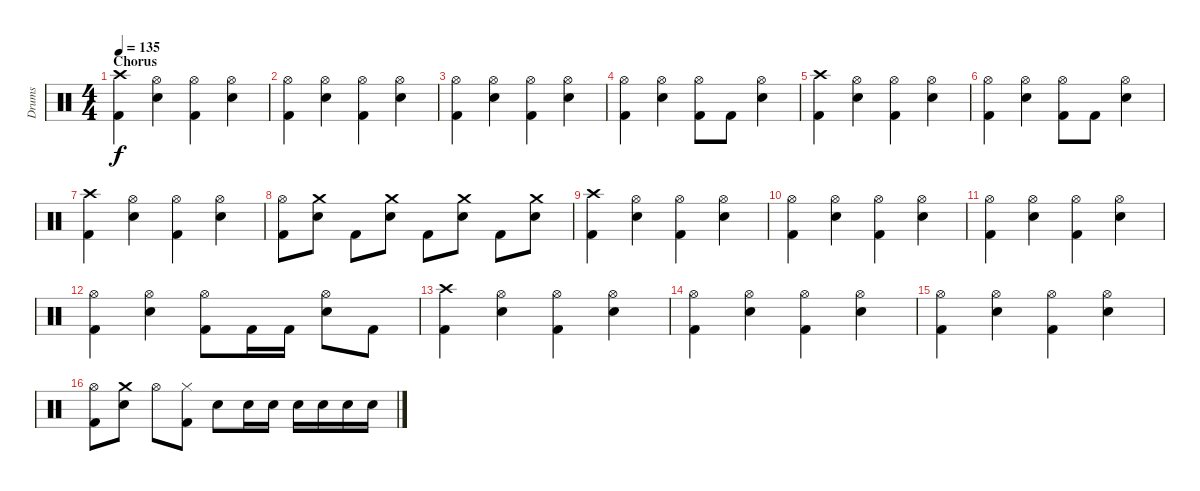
\track ("Drums" "Drums") {instrument percussion}
\staff {score}
\articulation defaults
\ts (4 4)
\section ("" "Chorus")
\tempo 135
\clef neutral
\ks c
("Crash high (hit)" "Kick (hit) 2").4{dy f} ("Hi-Hat (open)" "Snare (hit) 2").4 ("Hi-Hat (open)" "Kick (hit) 2").4 ("Hi-Hat (open)" "Snare (hit) 2").4 |
("Hi-Hat (open)" "Kick (hit) 2").4 ("Hi-Hat (open)" "Snare (hit) 2").4 ("Hi-Hat (open)" "Kick (hit) 2").4 ("Hi-Hat (open)" "Snare (hit) 2").4 |
("Hi-Hat (open)" "Kick (hit) 2").4 ("Hi-Hat (open)" "Snare (hit) 2").4 ("Hi-Hat (open)" "Kick (hit) 2").4 ("Hi-Hat (open)" "Snare (hit) 2").4 |
("Hi-Hat (open)" "Kick (hit) 2").4 ("Hi-Hat (open)" "Snare (hit) 2").4 ("Hi-Hat (open)" "Kick (hit) 2").8 "Kick (hit) 2".8 ("Hi-Hat (open)" "Snare (hit) 2").4 |
("Crash high (hit)" "Kick (hit) 2").4 ("Hi-Hat (open)" "Snare (hit) 2").4 ("Hi-Hat (open)" "Kick (hit) 2").4 ("Hi-Hat (open)" "Snare (hit) 2").4 |
("Hi-Hat (open)" "Kick (hit) 2").4 ("Hi-Hat (open)" "Snare (hit) 2").4 ("Hi-Hat (open)" "Kick (hit) 2").8 "Kick (hit) 2".8 ("Hi-Hat (open)" "Snare (hit) 2").4 |
("Crash high (hit)" "Kick (hit) 2").4 ("Hi-Hat (open)" "Snare (hit) 2").4 ("Hi-Hat (open)" "Kick (hit) 2").4 ("Hi-Hat (open)" "Snare (hit) 2").4 |
("Hi-Hat (open)" "Kick (hit) 2").8 ("Crash medium (hit)" "Snare (hit) 2").8 "Kick (hit) 2".8 ("Crash medium (hit)" "Snare (hit) 2").8 "Kick (hit) 2".8 ("Crash medium (hit)" "Snare (hit) 2").8 "Kick (hit) 2".8 ("Crash medium (hit)" "Snare (hit) 2").8 |
("Crash high (hit)" "Kick (hit) 2").4 ("Hi-Hat (open)" "Snare (hit) 2").4 ("Hi-Hat (open)" "Kick (hit) 2").4 ("Hi-Hat (open)" "Snare (hit) 2").4 |
("Hi-Hat (open)" "Kick (hit) 2").4 ("Hi-Hat (open)" "Snare (hit) 2").4 ("Hi-Hat (open)" "Kick (hit) 2").4 ("Hi-Hat (open)" "Snare (hit) 2").4 |
("Hi-Hat (open)" "Kick (hit) 2").4 ("Hi-Hat (open)" "Snare (hit) 2").4 ("Hi-Hat (open)" "Kick (hit) 2").4 ("Hi-Hat (open)" "Snare (hit) 2").4 |
("Hi-Hat (open)" "Kick (hit) 2").4 ("Hi-Hat (open)" "Snare (hit) 2").4 ("Hi-Hat (open)" "Kick (hit) 2").8 "Kick (hit) 2".16 "Kick (hit) 2".16 ("Hi-Hat (open)" "Snare (hit) 2").8 "Kick (hit) 2".8 |
("Crash high (hit)" "Kick (hit) 2").4 ("Hi-Hat (open)" "Snare (hit) 2").4 ("Hi-Hat (open)" "Kick (hit) 2").4 ("Hi-Hat (open)" "Snare (hit) 2").4 |
("Hi-Hat (open)" "Kick (hit) 2").4 ("Hi-Hat (open)" "Snare (hit) 2").4 ("Hi-Hat (open)" "Kick (hit) 2").4 ("Hi-Hat (open)" "Snare (hit) 2").4 |
("Hi-Hat (open)" "Kick (hit) 2").4 ("Hi-Hat (open)" "Snare (hit) 2").4 ("Hi-Hat (open)" "Kick (hit) 2").4 ("Hi-Hat (open)" "Snare (hit) 2").4 |
("Hi-Hat (open)" "Kick (hit) 2").8 ("Crash medium (hit)" "Snare (hit) 2").8 "Hi-Hat (open)".8 ("Hi-Hat (closed)" "Kick (hit) 2").8 "Snare (hit) 2".8 "Snare (hit) 2".16 "Snare (hit) 2".16 "Snare (hit) 2".16 "Snare (hit) 2".16 "Snare (hit) 2".16 "Snare (hit) 2".16
